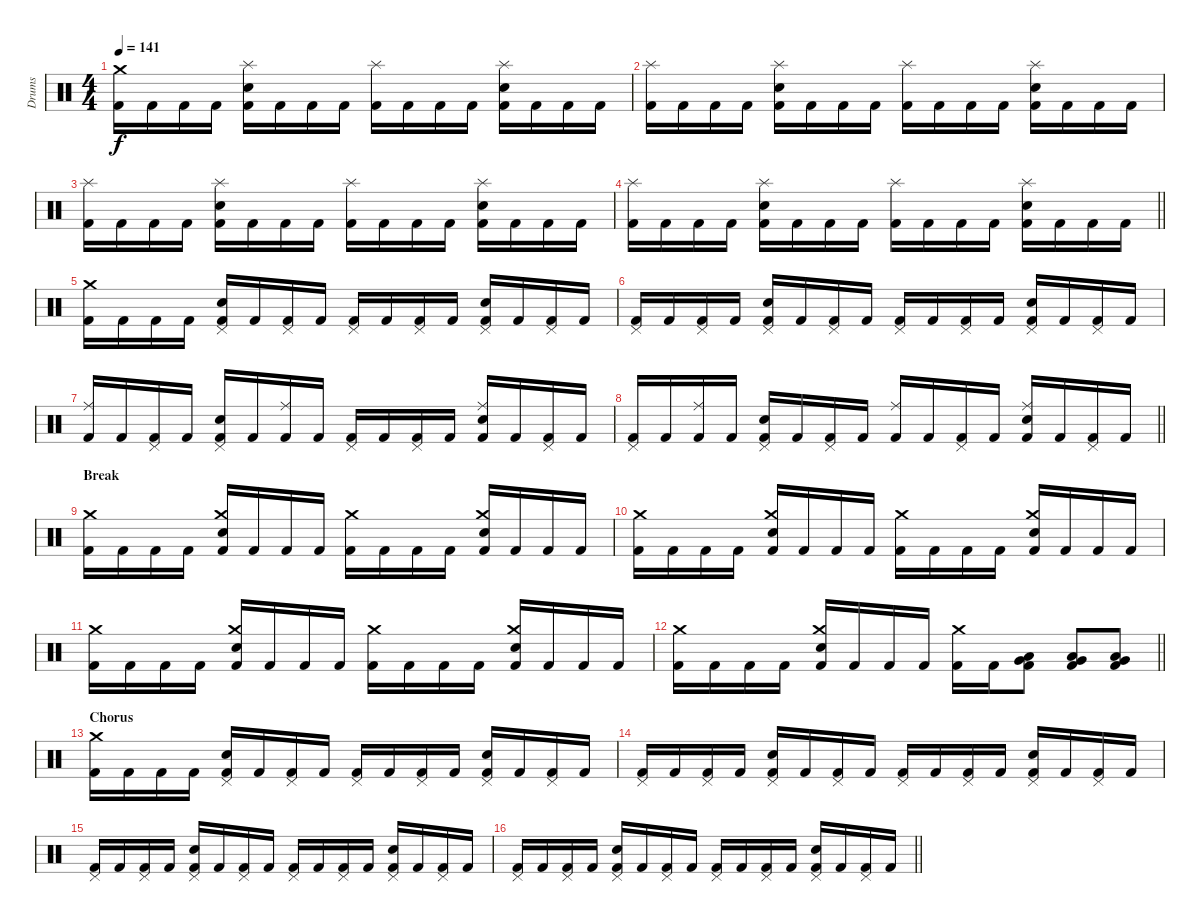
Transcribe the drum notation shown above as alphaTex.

\track ("Drums" "Drums") {instrument percussion}
\staff {score}
\articulation defaults
\ts (4 4)
\section ("" "")
\tempo 141
\clef neutral
\ks c
("Kick (hit) 2" "Crash medium (hit)").16{dy f} "Kick (hit) 2".16 "Kick (hit) 2".16 "Kick (hit) 2".16 ("Kick (hit) 2" "Snare (hit) 2" "Splash (hit)").16 "Kick (hit) 2".16 "Kick (hit) 2".16 "Kick (hit) 2".16 ("Kick (hit) 2" "Splash (hit)").16 "Kick (hit) 2".16 "Kick (hit) 2".16 "Kick (hit) 2".16 ("Kick (hit) 2" "Snare (hit) 2" "Splash (hit)").16 "Kick (hit) 2".16 "Kick (hit) 2".16 "Kick (hit) 2".16 |
("Kick (hit) 2" "Splash (hit)").16 "Kick (hit) 2".16 "Kick (hit) 2".16 "Kick (hit) 2".16 ("Kick (hit) 2" "Snare (hit) 2" "Splash (hit)").16 "Kick (hit) 2".16 "Kick (hit) 2".16 "Kick (hit) 2".16 ("Kick (hit) 2" "Splash (hit)").16 "Kick (hit) 2".16 "Kick (hit) 2".16 "Kick (hit) 2".16 ("Kick (hit) 2" "Snare (hit) 2" "Splash (hit)").16 "Kick (hit) 2".16 "Kick (hit) 2".16 "Kick (hit) 2".16 |
("Kick (hit) 2" "Splash (hit)").16 "Kick (hit) 2".16 "Kick (hit) 2".16 "Kick (hit) 2".16 ("Kick (hit) 2" "Snare (hit) 2" "Splash (hit)").16 "Kick (hit) 2".16 "Kick (hit) 2".16 "Kick (hit) 2".16 ("Kick (hit) 2" "Splash (hit)").16 "Kick (hit) 2".16 "Kick (hit) 2".16 "Kick (hit) 2".16 ("Kick (hit) 2" "Snare (hit) 2" "Splash (hit)").16 "Kick (hit) 2".16 "Kick (hit) 2".16 "Kick (hit) 2".16 |
\barLineRight lightlight
("Kick (hit) 2" "Splash (hit)").16 "Kick (hit) 2".16 "Kick (hit) 2".16 "Kick (hit) 2".16 ("Kick (hit) 2" "Snare (hit) 2" "Splash (hit)").16 "Kick (hit) 2".16 "Kick (hit) 2".16 "Kick (hit) 2".16 ("Kick (hit) 2" "Splash (hit)").16 "Kick (hit) 2".16 "Kick (hit) 2".16 "Kick (hit) 2".16 ("Kick (hit) 2" "Snare (hit) 2" "Splash (hit)").16 "Kick (hit) 2".16 "Kick (hit) 2".16 "Kick (hit) 2".16 |
\section ("" "")
("Kick (hit) 2" "Crash medium (hit)").16 "Kick (hit) 2".16 "Kick (hit) 2".16 "Kick (hit) 2".16 ("Kick (hit) 2" "Snare (hit) 2" "Pedal Hi-Hat (hit)").16 "Kick (hit) 2".16 ("Kick (hit) 2" "Pedal Hi-Hat (hit)").16 "Kick (hit) 2".16 ("Kick (hit) 2" "Pedal Hi-Hat (hit)").16 "Kick (hit) 2".16 ("Kick (hit) 2" "Pedal Hi-Hat (hit)").16 "Kick (hit) 2".16 ("Kick (hit) 2" "Snare (hit) 2" "Pedal Hi-Hat (hit)").16 "Kick (hit) 2".16 ("Kick (hit) 2" "Pedal Hi-Hat (hit)").16 "Kick (hit) 2".16 |
("Kick (hit) 2" "Pedal Hi-Hat (hit)").16 "Kick (hit) 2".16 ("Kick (hit) 2" "Pedal Hi-Hat (hit)").16 "Kick (hit) 2".16 ("Kick (hit) 2" "Snare (hit) 2" "Pedal Hi-Hat (hit)").16 "Kick (hit) 2".16 ("Kick (hit) 2" "Pedal Hi-Hat (hit)").16 "Kick (hit) 2".16 ("Kick (hit) 2" "Pedal Hi-Hat (hit)").16 "Kick (hit) 2".16 ("Kick (hit) 2" "Pedal Hi-Hat (hit)").16 "Kick (hit) 2".16 ("Kick (hit) 2" "Snare (hit) 2" "Pedal Hi-Hat (hit)").16 "Kick (hit) 2".16 ("Kick (hit) 2" "Pedal Hi-Hat (hit)").16 "Kick (hit) 2".16 |
("Kick (hit) 2" "Ride (middle)").16 "Kick (hit) 2".16 ("Kick (hit) 2" "Pedal Hi-Hat (hit)").16 "Kick (hit) 2".16 ("Kick (hit) 2" "Snare (hit) 2" "Pedal Hi-Hat (hit)").16 "Kick (hit) 2".16 ("Kick (hit) 2" "Ride (middle)").16 "Kick (hit) 2".16 ("Kick (hit) 2" "Pedal Hi-Hat (hit)").16 "Kick (hit) 2".16 ("Kick (hit) 2" "Pedal Hi-Hat (hit)").16 "Kick (hit) 2".16 ("Kick (hit) 2" "Snare (hit) 2" "Ride (middle)").16 "Kick (hit) 2".16 ("Kick (hit) 2" "Pedal Hi-Hat (hit)").16 "Kick (hit) 2".16 |
\barLineRight lightlight
("Kick (hit) 2" "Pedal Hi-Hat (hit)").16 "Kick (hit) 2".16 ("Kick (hit) 2" "Ride (middle)").16 "Kick (hit) 2".16 ("Kick (hit) 2" "Snare (hit) 2" "Pedal Hi-Hat (hit)").16 "Kick (hit) 2".16 ("Kick (hit) 2" "Pedal Hi-Hat (hit)").16 "Kick (hit) 2".16 ("Kick (hit) 2" "Ride (middle)").16 "Kick (hit) 2".16 ("Kick (hit) 2" "Pedal Hi-Hat (hit)").16 "Kick (hit) 2".16 ("Kick (hit) 2" "Snare (hit) 2" "Ride (middle)").16 "Kick (hit) 2".16 ("Kick (hit) 2" "Pedal Hi-Hat (hit)").16 "Kick (hit) 2".16 |
\section ("" "Break")
("Kick (hit) 2" "Crash medium (hit)").16 "Kick (hit) 2".16 "Kick (hit) 2".16 "Kick (hit) 2".16 ("Kick (hit) 2" "Snare (hit) 2" "Crash medium (hit)").16 "Kick (hit) 2".16 "Kick (hit) 2".16 "Kick (hit) 2".16 ("Kick (hit) 2" "Crash medium (hit)").16 "Kick (hit) 2".16 "Kick (hit) 2".16 "Kick (hit) 2".16 ("Kick (hit) 2" "Snare (hit) 2" "Crash medium (hit)").16 "Kick (hit) 2".16 "Kick (hit) 2".16 "Kick (hit) 2".16 |
("Kick (hit) 2" "Crash medium (hit)").16 "Kick (hit) 2".16 "Kick (hit) 2".16 "Kick (hit) 2".16 ("Kick (hit) 2" "Snare (hit) 2" "Crash medium (hit)").16 "Kick (hit) 2".16 "Kick (hit) 2".16 "Kick (hit) 2".16 ("Kick (hit) 2" "Crash medium (hit)").16 "Kick (hit) 2".16 "Kick (hit) 2".16 "Kick (hit) 2".16 ("Kick (hit) 2" "Snare (hit) 2" "Crash medium (hit)").16 "Kick (hit) 2".16 "Kick (hit) 2".16 "Kick (hit) 2".16 |
("Kick (hit) 2" "Crash medium (hit)").16 "Kick (hit) 2".16 "Kick (hit) 2".16 "Kick (hit) 2".16 ("Kick (hit) 2" "Snare (hit) 2" "Crash medium (hit)").16 "Kick (hit) 2".16 "Kick (hit) 2".16 "Kick (hit) 2".16 ("Kick (hit) 2" "Crash medium (hit)").16 "Kick (hit) 2".16 "Kick (hit) 2".16 "Kick (hit) 2".16 ("Kick (hit) 2" "Snare (hit) 2" "Crash medium (hit)").16 "Kick (hit) 2".16 "Kick (hit) 2".16 "Kick (hit) 2".16 |
\barLineRight lightlight
("Kick (hit) 2" "Crash medium (hit)").16 "Kick (hit) 2".16 "Kick (hit) 2".16 "Kick (hit) 2".16 ("Kick (hit) 2" "Snare (hit) 2" "Crash medium (hit)").16 "Kick (hit) 2".16 "Kick (hit) 2".16 "Kick (hit) 2".16 ("Kick (hit) 2" "Crash medium (hit)").16 "Kick (hit) 2".16 ("Kick (hit) 2" "Very Low Tom (hit)" "Low Floor Tom (hit)").8 ("Kick (hit) 2" "Very Low Tom (hit)" "Low Floor Tom (hit)").8 ("Kick (hit) 2" "Very Low Tom (hit)" "Low Floor Tom (hit)").8 |
\section ("" "Chorus")
("Kick (hit) 2" "Crash medium (hit)").16 "Kick (hit) 2".16 "Kick (hit) 2".16 "Kick (hit) 2".16 ("Kick (hit) 2" "Snare (hit) 2" "Pedal Hi-Hat (hit)").16 "Kick (hit) 2".16 ("Kick (hit) 2" "Pedal Hi-Hat (hit)").16 "Kick (hit) 2".16 ("Kick (hit) 2" "Pedal Hi-Hat (hit)").16 "Kick (hit) 2".16 ("Kick (hit) 2" "Pedal Hi-Hat (hit)").16 "Kick (hit) 2".16 ("Kick (hit) 2" "Snare (hit) 2" "Pedal Hi-Hat (hit)").16 "Kick (hit) 2".16 ("Kick (hit) 2" "Pedal Hi-Hat (hit)").16 "Kick (hit) 2".16 |
("Kick (hit) 2" "Pedal Hi-Hat (hit)").16 "Kick (hit) 2".16 ("Kick (hit) 2" "Pedal Hi-Hat (hit)").16 "Kick (hit) 2".16 ("Kick (hit) 2" "Snare (hit) 2" "Pedal Hi-Hat (hit)").16 "Kick (hit) 2".16 ("Kick (hit) 2" "Pedal Hi-Hat (hit)").16 "Kick (hit) 2".16 ("Kick (hit) 2" "Pedal Hi-Hat (hit)").16 "Kick (hit) 2".16 ("Kick (hit) 2" "Pedal Hi-Hat (hit)").16 "Kick (hit) 2".16 ("Kick (hit) 2" "Snare (hit) 2" "Pedal Hi-Hat (hit)").16 "Kick (hit) 2".16 ("Kick (hit) 2" "Pedal Hi-Hat (hit)").16 "Kick (hit) 2".16 |
("Kick (hit) 2" "Pedal Hi-Hat (hit)").16 "Kick (hit) 2".16 ("Kick (hit) 2" "Pedal Hi-Hat (hit)").16 "Kick (hit) 2".16 ("Kick (hit) 2" "Snare (hit) 2" "Pedal Hi-Hat (hit)").16 "Kick (hit) 2".16 ("Kick (hit) 2" "Pedal Hi-Hat (hit)").16 "Kick (hit) 2".16 ("Kick (hit) 2" "Pedal Hi-Hat (hit)").16 "Kick (hit) 2".16 ("Kick (hit) 2" "Pedal Hi-Hat (hit)").16 "Kick (hit) 2".16 ("Kick (hit) 2" "Snare (hit) 2" "Pedal Hi-Hat (hit)").16 "Kick (hit) 2".16 ("Kick (hit) 2" "Pedal Hi-Hat (hit)").16 "Kick (hit) 2".16 |
\barLineRight lightlight
("Kick (hit) 2" "Pedal Hi-Hat (hit)").16 "Kick (hit) 2".16 ("Kick (hit) 2" "Pedal Hi-Hat (hit)").16 "Kick (hit) 2".16 ("Kick (hit) 2" "Snare (hit) 2" "Pedal Hi-Hat (hit)").16 "Kick (hit) 2".16 ("Kick (hit) 2" "Pedal Hi-Hat (hit)").16 "Kick (hit) 2".16 ("Kick (hit) 2" "Pedal Hi-Hat (hit)").16 "Kick (hit) 2".16 ("Kick (hit) 2" "Pedal Hi-Hat (hit)").16 "Kick (hit) 2".16 ("Kick (hit) 2" "Snare (hit) 2" "Pedal Hi-Hat (hit)").16 "Kick (hit) 2".16 ("Kick (hit) 2" "Pedal Hi-Hat (hit)").16 "Kick (hit) 2".16
